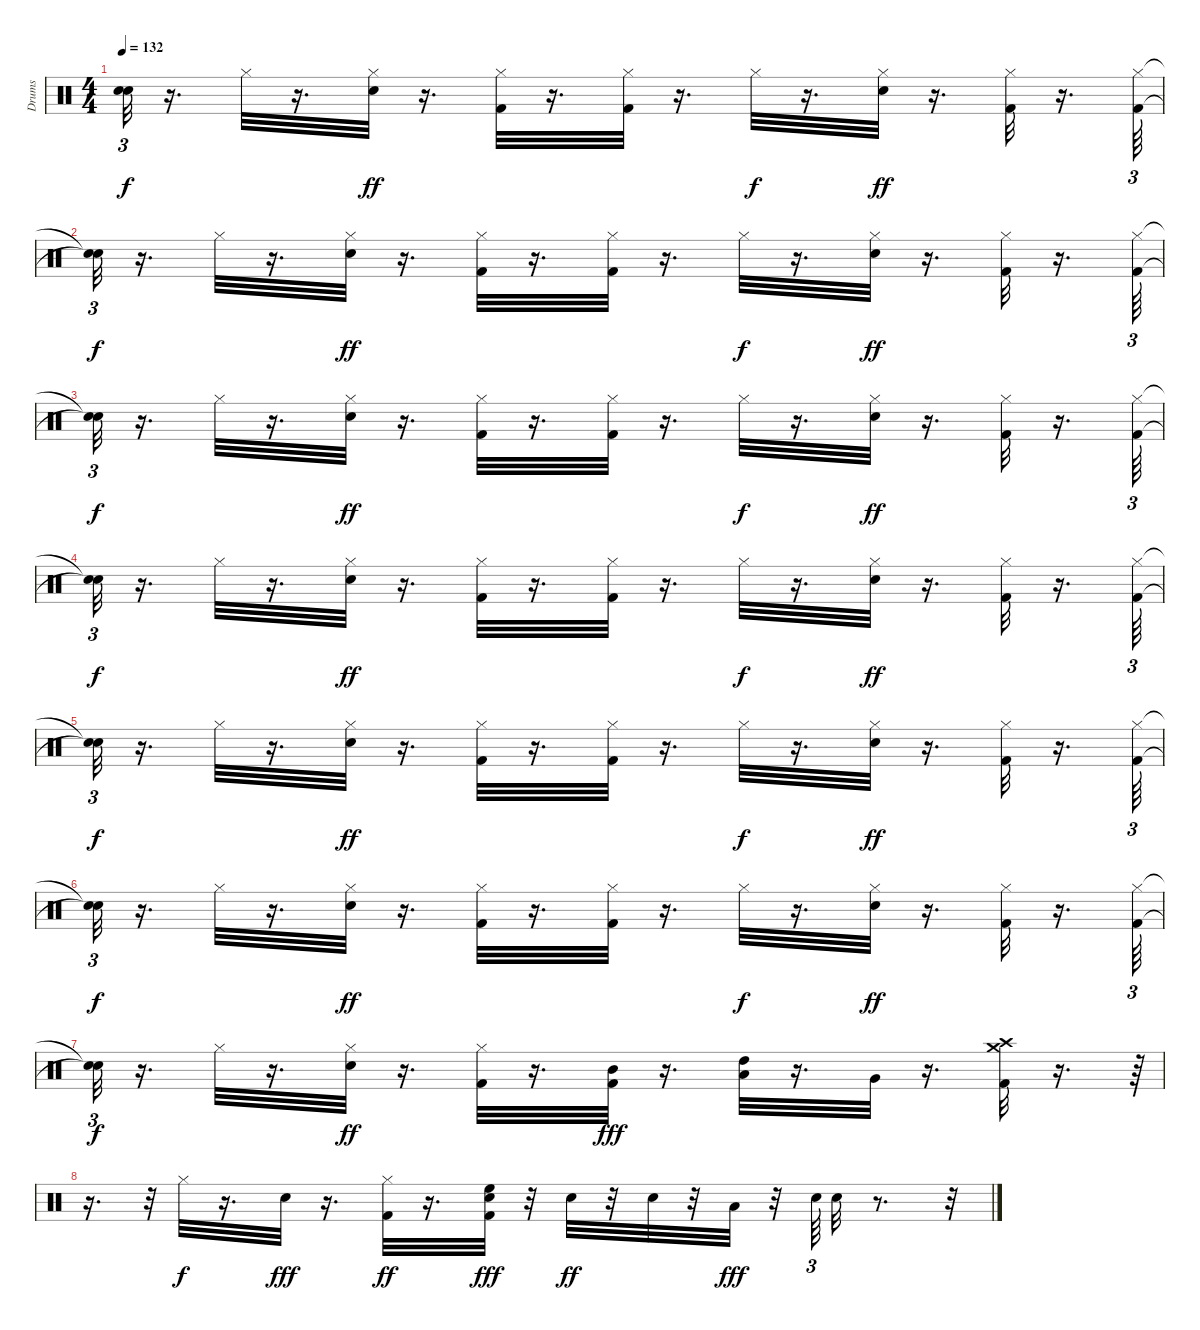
\track ("Drums" "Drums") {instrument percussion}
\staff {score}
\articulation defaults
\ts (4 4)
\tempo 132
\clef neutral
\ks c
("Snare (hit)"{t} "Snare (hit)"{t}).32{tu (3 2) dy f} r.16{d} "Hi-Hat (closed)".32 r.16{d} ("Snare (hit) 2" "Hi-Hat (closed)").32{dy ff} r.16{d} ("Kick (hit) 2" "Hi-Hat (closed)").32 r.16{d} ("Kick (hit) 2" "Hi-Hat (closed)").32 r.16{d} "Hi-Hat (closed)".32{dy f} r.16{d} ("Snare (hit) 2" "Hi-Hat (closed)").32{dy ff} r.16{d} ("Kick (hit) 2" "Hi-Hat (closed)").32 r.16{d} ("Kick (hit) 2" "Hi-Hat (closed)").64{tu (3 2)} |
("Snare (hit)"{t} "Snare (hit)"{t}).32{tu (3 2) dy f} r.16{d} "Hi-Hat (closed)".32 r.16{d} ("Snare (hit) 2" "Hi-Hat (closed)").32{dy ff} r.16{d} ("Kick (hit) 2" "Hi-Hat (closed)").32 r.16{d} ("Kick (hit) 2" "Hi-Hat (closed)").32 r.16{d} "Hi-Hat (closed)".32{dy f} r.16{d} ("Snare (hit) 2" "Hi-Hat (closed)").32{dy ff} r.16{d} ("Kick (hit) 2" "Hi-Hat (closed)").32 r.16{d} ("Kick (hit) 2" "Hi-Hat (closed)").64{tu (3 2)} |
("Snare (hit)"{t} "Snare (hit)"{t}).32{tu (3 2) dy f} r.16{d} "Hi-Hat (closed)".32 r.16{d} ("Snare (hit) 2" "Hi-Hat (closed)").32{dy ff} r.16{d} ("Kick (hit) 2" "Hi-Hat (closed)").32 r.16{d} ("Kick (hit) 2" "Hi-Hat (closed)").32 r.16{d} "Hi-Hat (closed)".32{dy f} r.16{d} ("Snare (hit) 2" "Hi-Hat (closed)").32{dy ff} r.16{d} ("Kick (hit) 2" "Hi-Hat (closed)").32 r.16{d} ("Kick (hit) 2" "Hi-Hat (closed)").64{tu (3 2)} |
("Snare (hit)"{t} "Snare (hit)"{t}).32{tu (3 2) dy f} r.16{d} "Hi-Hat (closed)".32 r.16{d} ("Snare (hit) 2" "Hi-Hat (closed)").32{dy ff} r.16{d} ("Kick (hit) 2" "Hi-Hat (closed)").32 r.16{d} ("Kick (hit) 2" "Hi-Hat (closed)").32 r.16{d} "Hi-Hat (closed)".32{dy f} r.16{d} ("Snare (hit) 2" "Hi-Hat (closed)").32{dy ff} r.16{d} ("Kick (hit) 2" "Hi-Hat (closed)").32 r.16{d} ("Kick (hit) 2" "Hi-Hat (closed)").64{tu (3 2)} |
("Snare (hit)"{t} "Snare (hit)"{t}).32{tu (3 2) dy f} r.16{d} "Hi-Hat (closed)".32 r.16{d} ("Snare (hit) 2" "Hi-Hat (closed)").32{dy ff} r.16{d} ("Kick (hit) 2" "Hi-Hat (closed)").32 r.16{d} ("Kick (hit) 2" "Hi-Hat (closed)").32 r.16{d} "Hi-Hat (closed)".32{dy f} r.16{d} ("Snare (hit) 2" "Hi-Hat (closed)").32{dy ff} r.16{d} ("Kick (hit) 2" "Hi-Hat (closed)").32 r.16{d} ("Kick (hit) 2" "Hi-Hat (closed)").64{tu (3 2)} |
("Snare (hit)"{t} "Snare (hit)"{t}).32{tu (3 2) dy f} r.16{d} "Hi-Hat (closed)".32 r.16{d} ("Snare (hit) 2" "Hi-Hat (closed)").32{dy ff} r.16{d} ("Kick (hit) 2" "Hi-Hat (closed)").32 r.16{d} ("Kick (hit) 2" "Hi-Hat (closed)").32 r.16{d} "Hi-Hat (closed)".32{dy f} r.16{d} ("Snare (hit) 2" "Hi-Hat (closed)").32{dy ff} r.16{d} ("Kick (hit) 2" "Hi-Hat (closed)").32 r.16{d} ("Kick (hit) 2" "Hi-Hat (closed)").64{tu (3 2)} |
("Snare (hit)"{t} "Snare (hit)"{t}).32{tu (3 2) dy f} r.16{d} "Hi-Hat (closed)".32 r.16{d} ("Snare (hit) 2" "Hi-Hat (closed)").32{dy ff} r.16{d} ("Kick (hit) 2" "Hi-Hat (closed)").32 r.16{d} ("Kick (hit) 2" "Mid Tom (hit)").32{dy fff} r.16{d} ("Low Tom (hit)" "High Tom (hit)").32 r.16{d} "Very Low Tom (hit)".32 r.16{d} ("Kick (hit) 2" "Crash high (hit)" "Crash medium (hit)").32 r.16{d} r.64{tu (3 2)} |
r.16{d} r.32{tu (3 2)} "Hi-Hat (closed)".32{dy f} r.16{d} "Snare (hit) 2".32{dy fff} r.16{d} ("Kick (hit) 2" "Hi-Hat (closed)").32{dy ff} r.16{d} ("Kick (hit) 2" "Snare (hit) 2" "High Floor Tom (hit)").32{dy fff} r.32 "Snare (hit) 2".32{dy ff} r.32 "Snare (hit) 2".32 r.32 "Low Tom (hit)".32{dy fff} r.32 "Snare (hit) 2".64{tu (3 2)} "Snare (hit) 2".32 r.8{d} r.32
